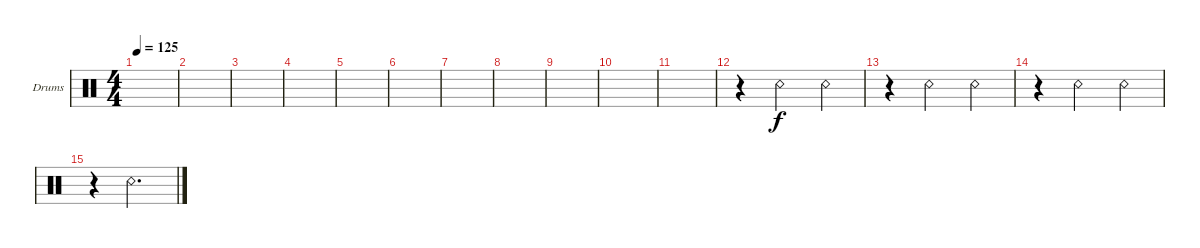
\defaultSystemsLayout 4
\bracketExtendMode groupsimilarinstruments
\firstSystemTrackNameOrientation horizontal
\otherSystemsTrackNameOrientation horizontal
\track ("Drumkit" "Drums") {instrument percussion}
\staff {score}
\articulation defaults
\ts (4 4)
\tempo 125
\clef neutral
\scale
0.333333
\ks c
|
\scale
0.333333 |
\scale
0.333333 |
\scale
0.333333 |
\scale
0.333333 |
\scale
0.333333 |
\scale
0.333333 |
\scale
0.333333 |
\scale
0.333333 |
\scale
0.333333 |
\scale
0.333333 |
\scale
0.333333 r.4 "Snare (rim shot)".2 "Snare (rim shot)".4 |
\scale
0.333333 r.4 "Snare (rim shot)".2 "Snare (rim shot)".4 |
\scale
0.333333 r.4 "Snare (rim shot)".2 "Snare (rim shot)".4 |
\scale
0.333333 r.4 "Snare (rim shot)".2{d} |
\scale
0.333333
